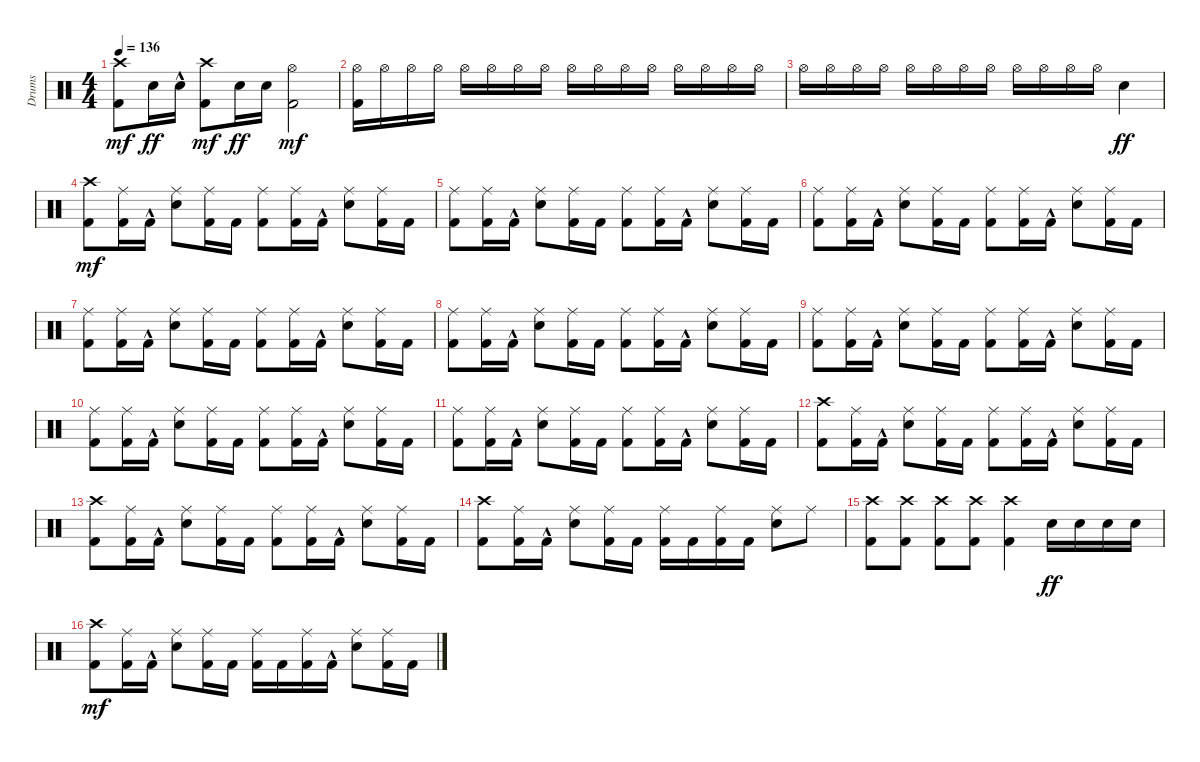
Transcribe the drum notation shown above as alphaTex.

\track ("Drums" "Drums") {instrument percussion}
\staff {score}
\articulation defaults
\ts (4 4)
\tempo 136
\clef neutral
\ks c
("Kick (hit) 2" "Crash high (hit)").8{dy mf} "Snare (hit) 2".16{dy ff} "Snare (hit) 2"{hac}.16 ("Kick (hit) 2" "Crash high (hit)").8{dy mf} "Snare (hit) 2".16{dy ff} "Snare (hit) 2".16 ("Kick (hit) 2" "Hi-Hat (open)").2{dy mf} |
("Kick (hit) 2" "Hi-Hat (open)").16 "Hi-Hat (open)".16 "Hi-Hat (open)".16 "Hi-Hat (open)".16 "Hi-Hat (open)".16 "Hi-Hat (open)".16 "Hi-Hat (open)".16 "Hi-Hat (open)".16 "Hi-Hat (open)".16 "Hi-Hat (open)".16 "Hi-Hat (open)".16 "Hi-Hat (open)".16 "Hi-Hat (open)".16 "Hi-Hat (open)".16 "Hi-Hat (open)".16 "Hi-Hat (open)".16 |
"Hi-Hat (open)".16 "Hi-Hat (open)".16 "Hi-Hat (open)".16 "Hi-Hat (open)".16 "Hi-Hat (open)".16 "Hi-Hat (open)".16 "Hi-Hat (open)".16 "Hi-Hat (open)".16 "Hi-Hat (open)".16 "Hi-Hat (open)".16 "Hi-Hat (open)".16 "Hi-Hat (open)".16 "Snare (hit) 2".4{dy ff} |
("Kick (hit) 2" "Crash high (hit)").8{dy mf} ("Kick (hit) 2" "Ride (middle)").16 "Kick (hit) 2"{hac}.16 ("Snare (hit) 2" "Ride (middle)").8 ("Kick (hit) 2" "Ride (middle)").16 "Kick (hit) 2".16 ("Kick (hit) 2" "Ride (middle)").8 ("Kick (hit) 2" "Ride (middle)").16 "Kick (hit) 2"{hac}.16 ("Snare (hit) 2" "Ride (middle)").8 ("Kick (hit) 2" "Ride (middle)").16 "Kick (hit) 2".16 |
("Kick (hit) 2" "Ride (middle)").8 ("Kick (hit) 2" "Ride (middle)").16 "Kick (hit) 2"{hac}.16 ("Snare (hit) 2" "Ride (middle)").8 ("Kick (hit) 2" "Ride (middle)").16 "Kick (hit) 2".16 ("Kick (hit) 2" "Ride (middle)").8 ("Kick (hit) 2" "Ride (middle)").16 "Kick (hit) 2"{hac}.16 ("Snare (hit) 2" "Ride (middle)").8 ("Kick (hit) 2" "Ride (middle)").16 "Kick (hit) 2".16 |
("Kick (hit) 2" "Ride (middle)").8 ("Kick (hit) 2" "Ride (middle)").16 "Kick (hit) 2"{hac}.16 ("Snare (hit) 2" "Ride (middle)").8 ("Kick (hit) 2" "Ride (middle)").16 "Kick (hit) 2".16 ("Kick (hit) 2" "Ride (middle)").8 ("Kick (hit) 2" "Ride (middle)").16 "Kick (hit) 2"{hac}.16 ("Snare (hit) 2" "Ride (middle)").8 ("Kick (hit) 2" "Ride (middle)").16 "Kick (hit) 2".16 |
("Kick (hit) 2" "Ride (middle)").8 ("Kick (hit) 2" "Ride (middle)").16 "Kick (hit) 2"{hac}.16 ("Snare (hit) 2" "Ride (middle)").8 ("Kick (hit) 2" "Ride (middle)").16 "Kick (hit) 2".16 ("Kick (hit) 2" "Ride (middle)").8 ("Kick (hit) 2" "Ride (middle)").16 "Kick (hit) 2"{hac}.16 ("Snare (hit) 2" "Ride (middle)").8 ("Kick (hit) 2" "Ride (middle)").16 "Kick (hit) 2".16 |
("Kick (hit) 2" "Ride (middle)").8 ("Kick (hit) 2" "Ride (middle)").16 "Kick (hit) 2"{hac}.16 ("Snare (hit) 2" "Ride (middle)").8 ("Kick (hit) 2" "Ride (middle)").16 "Kick (hit) 2".16 ("Kick (hit) 2" "Ride (middle)").8 ("Kick (hit) 2" "Ride (middle)").16 "Kick (hit) 2"{hac}.16 ("Snare (hit) 2" "Ride (middle)").8 ("Kick (hit) 2" "Ride (middle)").16 "Kick (hit) 2".16 |
("Kick (hit) 2" "Ride (middle)").8 ("Kick (hit) 2" "Ride (middle)").16 "Kick (hit) 2"{hac}.16 ("Snare (hit) 2" "Ride (middle)").8 ("Kick (hit) 2" "Ride (middle)").16 "Kick (hit) 2".16 ("Kick (hit) 2" "Ride (middle)").8 ("Kick (hit) 2" "Ride (middle)").16 "Kick (hit) 2"{hac}.16 ("Snare (hit) 2" "Ride (middle)").8 ("Kick (hit) 2" "Ride (middle)").16 "Kick (hit) 2".16 |
("Kick (hit) 2" "Ride (middle)").8 ("Kick (hit) 2" "Ride (middle)").16 "Kick (hit) 2"{hac}.16 ("Snare (hit) 2" "Ride (middle)").8 ("Kick (hit) 2" "Ride (middle)").16 "Kick (hit) 2".16 ("Kick (hit) 2" "Ride (middle)").8 ("Kick (hit) 2" "Ride (middle)").16 "Kick (hit) 2"{hac}.16 ("Snare (hit) 2" "Ride (middle)").8 ("Kick (hit) 2" "Ride (middle)").16 "Kick (hit) 2".16 |
("Kick (hit) 2" "Ride (middle)").8 ("Kick (hit) 2" "Ride (middle)").16 "Kick (hit) 2"{hac}.16 ("Snare (hit) 2" "Ride (middle)").8 ("Kick (hit) 2" "Ride (middle)").16 "Kick (hit) 2".16 ("Kick (hit) 2" "Ride (middle)").8 ("Kick (hit) 2" "Ride (middle)").16 "Kick (hit) 2"{hac}.16 ("Snare (hit) 2" "Ride (middle)").8 ("Kick (hit) 2" "Ride (middle)").16 "Kick (hit) 2".16 |
("Kick (hit) 2" "Crash high (hit)").8 ("Kick (hit) 2" "Ride (middle)").16 "Kick (hit) 2"{hac}.16 ("Snare (hit) 2" "Ride (middle)").8 ("Kick (hit) 2" "Ride (middle)").16 "Kick (hit) 2".16 ("Kick (hit) 2" "Ride (middle)").8 ("Kick (hit) 2" "Ride (middle)").16 "Kick (hit) 2"{hac}.16 ("Snare (hit) 2" "Ride (middle)").8 ("Kick (hit) 2" "Ride (middle)").16 "Kick (hit) 2".16 |
("Kick (hit) 2" "Crash high (hit)").8 ("Kick (hit) 2" "Ride (middle)").16 "Kick (hit) 2"{hac}.16 ("Snare (hit) 2" "Ride (middle)").8 ("Kick (hit) 2" "Ride (middle)").16 "Kick (hit) 2".16 ("Kick (hit) 2" "Ride (middle)").8 ("Kick (hit) 2" "Ride (middle)").16 "Kick (hit) 2"{hac}.16 ("Snare (hit) 2" "Ride (middle)").8 ("Kick (hit) 2" "Ride (middle)").16 "Kick (hit) 2".16 |
("Kick (hit) 2" "Crash high (hit)").8 ("Kick (hit) 2" "Ride (middle)").16 "Kick (hit) 2"{hac}.16 ("Snare (hit) 2" "Ride (middle)").8 ("Kick (hit) 2" "Ride (middle)").16 "Kick (hit) 2".16 ("Kick (hit) 2" "Ride (middle)").16 "Kick (hit) 2".16 ("Kick (hit) 2" "Ride (middle)").16 "Kick (hit) 2".16 ("Snare (hit) 2" "Ride (middle)").8 "Ride (middle)".8 |
("Kick (hit) 2" "Crash high (hit)").8 ("Kick (hit) 2" "Crash high (hit)").8 ("Kick (hit) 2" "Crash high (hit)").8 ("Kick (hit) 2" "Crash high (hit)").8 ("Kick (hit) 2" "Crash high (hit)").4 "Snare (hit) 2".16{dy ff} "Snare (hit) 2".16 "Snare (hit) 2".16 "Snare (hit) 2".16 |
("Kick (hit) 2" "Crash high (hit)").8{dy mf} ("Kick (hit) 2" "Ride (middle)").16 "Kick (hit) 2"{hac}.16 ("Snare (hit) 2" "Ride (middle)").8 ("Kick (hit) 2" "Ride (middle)").16 "Kick (hit) 2".16 ("Kick (hit) 2" "Ride (middle)").16 "Kick (hit) 2".16 ("Kick (hit) 2" "Ride (middle)").16 "Kick (hit) 2"{hac}.16 ("Snare (hit) 2" "Ride (middle)").8 ("Kick (hit) 2" "Ride (middle)").16 "Kick (hit) 2".16
